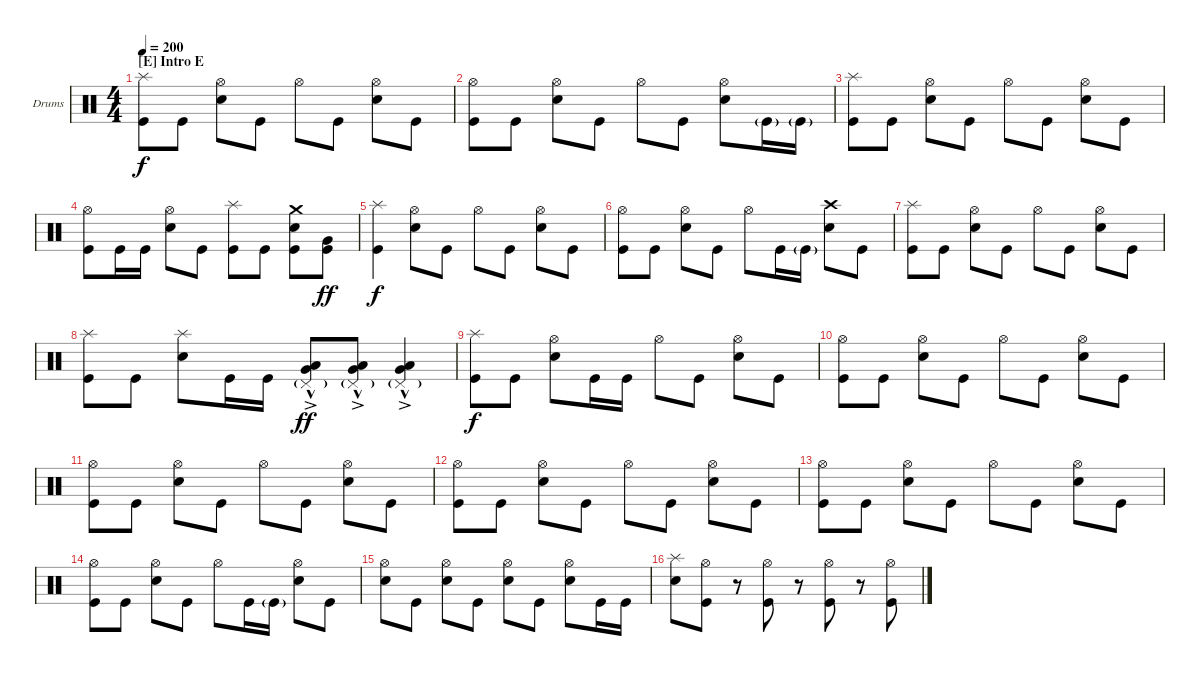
\defaultSystemsLayout 4
\bracketExtendMode groupsimilarinstruments
\firstSystemTrackNameOrientation horizontal
\otherSystemsTrackNameOrientation horizontal
\track ("Drumkit" "Drums") {instrument percussion}
\staff {score}
\articulation defaults
\ts (4 4)
\section ("E" "Intro E")
\tempo 200
\clef neutral
\ks c
("Kick (hit)" "Splash (hit)").8{dy f} "Kick (hit)".8 ("Snare (hit) 2" "Hi-Hat (open)").8 "Kick (hit)".8 "Hi-Hat (open)".8 "Kick (hit)".8 ("Snare (hit) 2" "Hi-Hat (open)").8 "Kick (hit)".8 |
("Kick (hit)" "Hi-Hat (open)").8 "Kick (hit)".8 ("Snare (hit) 2" "Hi-Hat (open)").8 "Kick (hit)".8 "Hi-Hat (open)".8 "Kick (hit)".8 ("Snare (hit) 2" "Hi-Hat (open)").8 "Kick (hit)"{g}.16 "Kick (hit)"{g}.16 |
("Kick (hit)" "Splash (hit)").8 "Kick (hit)".8 ("Snare (hit) 2" "Hi-Hat (open)").8 "Kick (hit)".8 "Hi-Hat (open)".8 "Kick (hit)".8 ("Snare (hit) 2" "Hi-Hat (open)").8 "Kick (hit)".8 |
("Kick (hit)" "Hi-Hat (open)").8 "Kick (hit)".16 "Kick (hit)".16 ("Snare (hit) 2" "Hi-Hat (open)").8 "Kick (hit)".8 ("Kick (hit)" "Splash (hit)").8 "Kick (hit)".8 ("Snare (hit) 2" "Kick (hit)" "Crash medium (hit)").8 ("Kick (hit)" "Very Low Tom (hit)").8{dy ff} |
("Kick (hit)" "Splash (hit)").4{dy f} ("Snare (hit) 2" "Hi-Hat (open)").8 "Kick (hit)".8 "Hi-Hat (open)".8 "Kick (hit)".8 ("Snare (hit) 2" "Hi-Hat (open)").8 "Kick (hit)".8 |
("Kick (hit)" "Hi-Hat (open)").8 "Kick (hit)".8 ("Snare (hit) 2" "Hi-Hat (open)").8 "Kick (hit)".8 "Hi-Hat (open)".8 "Kick (hit)".16 "Kick (hit)"{g}.16 ("Snare (hit) 2" "Crash high (hit)").8 "Kick (hit)".8 |
("Kick (hit)" "Splash (hit)").8 "Kick (hit)".8 ("Snare (hit) 2" "Hi-Hat (open)").8 "Kick (hit)".8 "Hi-Hat (open)".8 "Kick (hit)".8 ("Snare (hit) 2" "Hi-Hat (open)").8 "Kick (hit)".8 |
("Kick (hit)" "Splash (hit)").8 "Kick (hit)".8 ("Snare (hit) 2" "Splash (hit)").8 "Kick (hit)".16 "Kick (hit)".16 ("Very Low Tom (hit)"{hac} "Low Tom (hit)"{ac} "Pedal Hi-Hat (hit)"{g}).8{dy ff} ("Very Low Tom (hit)"{hac} "Low Tom (hit)"{ac} "Pedal Hi-Hat (hit)"{g}).8 ("Very Low Tom (hit)"{hac} "Low Tom (hit)"{ac} "Pedal Hi-Hat (hit)"{g}).4 |
("Kick (hit)" "Splash (hit)").8{dy f} "Kick (hit)".8 ("Snare (hit) 2" "Hi-Hat (open)").8 "Kick (hit)".16 "Kick (hit)".16 "Hi-Hat (open)".8 "Kick (hit)".8 ("Snare (hit) 2" "Hi-Hat (open)").8 "Kick (hit)".8 |
("Kick (hit)" "Hi-Hat (open)").8 "Kick (hit)".8 ("Snare (hit) 2" "Hi-Hat (open)").8 "Kick (hit)".8 "Hi-Hat (open)".8 "Kick (hit)".8 ("Snare (hit) 2" "Hi-Hat (open)").8 "Kick (hit)".8 |
("Kick (hit)" "Hi-Hat (open)").8 "Kick (hit)".8 ("Snare (hit) 2" "Hi-Hat (open)").8 "Kick (hit)".8 "Hi-Hat (open)".8 "Kick (hit)".8 ("Snare (hit) 2" "Hi-Hat (open)").8 "Kick (hit)".8 |
("Kick (hit)" "Hi-Hat (open)").8 "Kick (hit)".8 ("Snare (hit) 2" "Hi-Hat (open)").8 "Kick (hit)".8 "Hi-Hat (open)".8 "Kick (hit)".8 ("Snare (hit) 2" "Hi-Hat (open)").8 "Kick (hit)".8 |
("Kick (hit)" "Hi-Hat (open)").8 "Kick (hit)".8 ("Snare (hit) 2" "Hi-Hat (open)").8 "Kick (hit)".8 "Hi-Hat (open)".8 "Kick (hit)".8 ("Snare (hit) 2" "Hi-Hat (open)").8 "Kick (hit)".8 |
("Kick (hit)" "Hi-Hat (open)").8 "Kick (hit)".8 ("Snare (hit) 2" "Hi-Hat (open)").8 "Kick (hit)".8 "Hi-Hat (open)".8 "Kick (hit)".16 "Kick (hit)"{g}.16 ("Snare (hit) 2" "Hi-Hat (open)").8 "Kick (hit)".8 |
("Snare (hit) 2" "Hi-Hat (open)").8 "Kick (hit)".8 ("Snare (hit) 2" "Hi-Hat (open)").8 "Kick (hit)".8 ("Snare (hit) 2" "Hi-Hat (open)").8 "Kick (hit)".8 ("Snare (hit) 2" "Hi-Hat (open)").8 "Kick (hit)".16 "Kick (hit)".16 |
("Snare (hit) 2" "Splash (hit)").8 ("Kick (hit)" "Hi-Hat (open)").8 r.8 ("Kick (hit)" "Hi-Hat (open)").8 r.8 ("Kick (hit)" "Hi-Hat (open)").8 r.8 ("Kick (hit)" "Hi-Hat (open)").8
